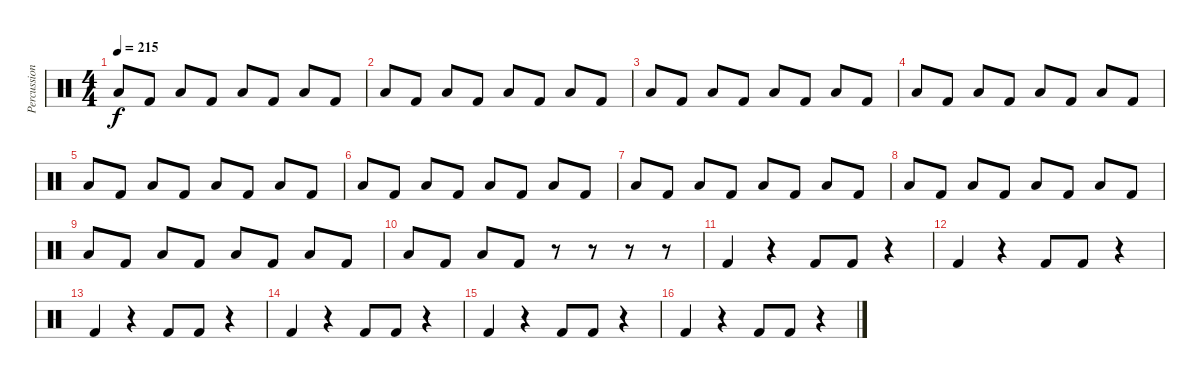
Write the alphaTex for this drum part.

\track ("Percussion" "Percussion") {instrument percussion}
\staff {score}
\articulation defaults
\ts (4 4)
\tempo 215
\clef neutral
\ks c "Low Floor Tom (hit)".8{dy f} "Kick (hit) 2".8 "Low Floor Tom (hit)".8 "Kick (hit) 2".8 "Low Floor Tom (hit)".8 "Kick (hit) 2".8 "Low Floor Tom (hit)".8 "Kick (hit) 2".8
|
"Low Floor Tom (hit)".8 "Kick (hit) 2".8 "Low Floor Tom (hit)".8 "Kick (hit) 2".8 "Low Floor Tom (hit)".8 "Kick (hit) 2".8 "Low Floor Tom (hit)".8 "Kick (hit) 2".8 |
"Low Floor Tom (hit)".8 "Kick (hit) 2".8 "Low Floor Tom (hit)".8 "Kick (hit) 2".8 "Low Floor Tom (hit)".8 "Kick (hit) 2".8 "Low Floor Tom (hit)".8 "Kick (hit) 2".8 |
"Low Floor Tom (hit)".8 "Kick (hit) 2".8 "Low Floor Tom (hit)".8 "Kick (hit) 2".8 "Low Floor Tom (hit)".8 "Kick (hit) 2".8 "Low Floor Tom (hit)".8 "Kick (hit) 2".8 |
"Low Floor Tom (hit)".8 "Kick (hit) 2".8 "Low Floor Tom (hit)".8 "Kick (hit) 2".8 "Low Floor Tom (hit)".8 "Kick (hit) 2".8 "Low Floor Tom (hit)".8 "Kick (hit) 2".8 |
"Low Floor Tom (hit)".8 "Kick (hit) 2".8 "Low Floor Tom (hit)".8 "Kick (hit) 2".8 "Low Floor Tom (hit)".8 "Kick (hit) 2".8 "Low Floor Tom (hit)".8 "Kick (hit) 2".8 |
"Low Floor Tom (hit)".8 "Kick (hit) 2".8 "Low Floor Tom (hit)".8 "Kick (hit) 2".8 "Low Floor Tom (hit)".8 "Kick (hit) 2".8 "Low Floor Tom (hit)".8 "Kick (hit) 2".8 |
"Low Floor Tom (hit)".8 "Kick (hit) 2".8 "Low Floor Tom (hit)".8 "Kick (hit) 2".8 "Low Floor Tom (hit)".8 "Kick (hit) 2".8 "Low Floor Tom (hit)".8 "Kick (hit) 2".8 |
"Low Floor Tom (hit)".8 "Kick (hit) 2".8 "Low Floor Tom (hit)".8 "Kick (hit) 2".8 "Low Floor Tom (hit)".8 "Kick (hit) 2".8 "Low Floor Tom (hit)".8 "Kick (hit) 2".8 |
"Low Floor Tom (hit)".8 "Kick (hit) 2".8 "Low Floor Tom (hit)".8 "Kick (hit) 2".8 r.8 r.8 r.8 r.8 |
"Kick (hit) 2".4 r.4 "Kick (hit) 2".8 "Kick (hit) 2".8 r.4 |
"Kick (hit) 2".4 r.4 "Kick (hit) 2".8 "Kick (hit) 2".8 r.4 |
"Kick (hit) 2".4 r.4 "Kick (hit) 2".8 "Kick (hit) 2".8 r.4 |
"Kick (hit) 2".4 r.4 "Kick (hit) 2".8 "Kick (hit) 2".8 r.4 |
"Kick (hit) 2".4 r.4 "Kick (hit) 2".8 "Kick (hit) 2".8 r.4 |
"Kick (hit) 2".4 r.4 "Kick (hit) 2".8 "Kick (hit) 2".8 r.4
